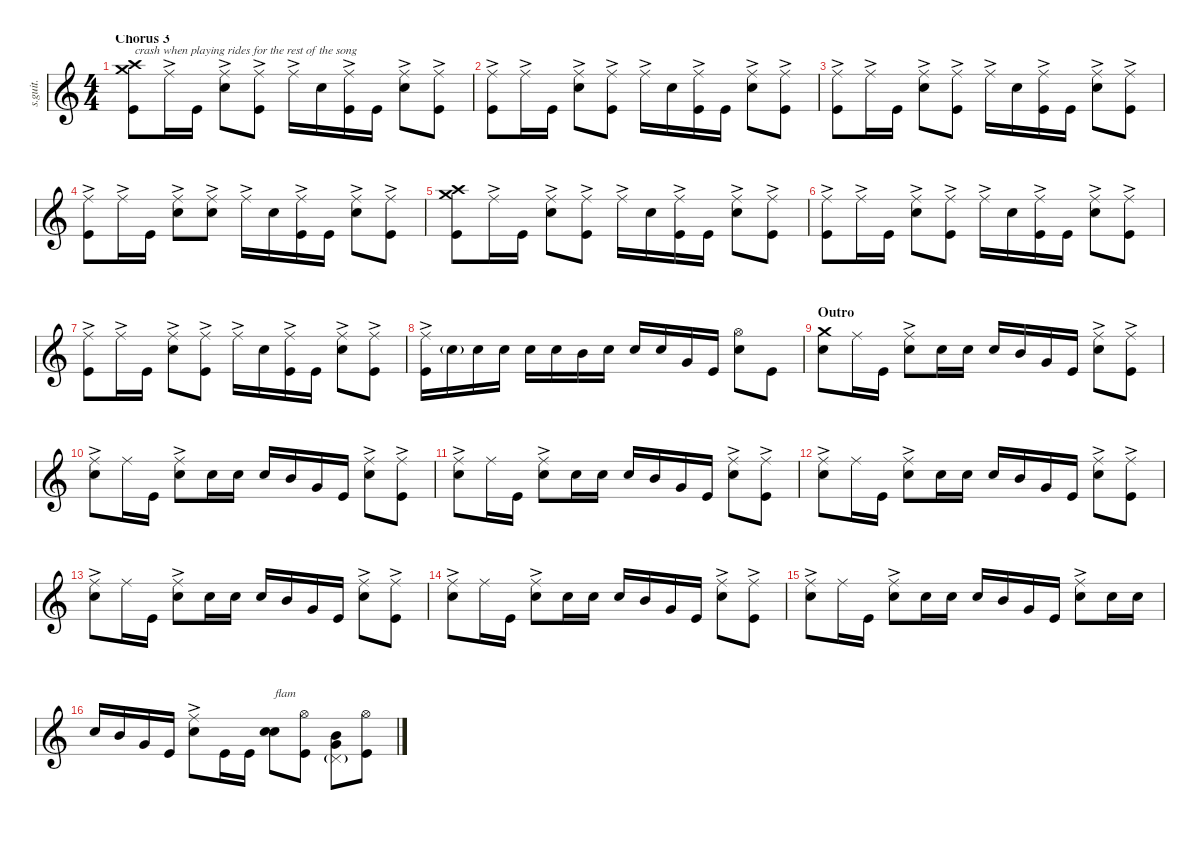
\defaultSystemsLayout 4
\hideDynamics
\bracketExtendMode nobrackets
\track ("Matt Helders" "s.guit.") {instrument percussion}
\staff {score}
\articulation defaults
\ts (4 4)
\section ("" "Chorus 3")
\tempo (97 hide)
\clef g2
\ks c
("Crash high (hit)" "Crash medium (hit)" "Kick (hit)").8{txt "crash when playing rides for the rest of the song" lyrics (0 "") lyrics (1 "") lyrics (2 "") lyrics (3 "") lyrics (4 "") dy f} "Ride (middle)"{ac}.16{lyrics (0 "") lyrics (1 "") lyrics (2 "") lyrics (3 "") lyrics (4 "") dy ff} "Kick (hit)".16{lyrics (0 "") lyrics (1 "") lyrics (2 "") lyrics (3 "") lyrics (4 "") dy f} ("Ride (middle)"{ac} "Snare (hit) 2").8{lyrics (0 "") lyrics (1 "") lyrics (2 "") lyrics (3 "") lyrics (4 "")} ("Ride (middle)"{ac} "Kick (hit)").8{lyrics (0 "") lyrics (1 "") lyrics (2 "") lyrics (3 "") lyrics (4 "")} "Ride (middle)"{ac}.16{lyrics (0 "") lyrics (1 "") lyrics (2 "") lyrics (3 "") lyrics (4 "") dy ff} "Snare (hit) 2".16{lyrics (0 "") lyrics (1 "") lyrics (2 "") lyrics (3 "") lyrics (4 "") dy f} ("Ride (middle)"{ac} "Kick (hit)").16{lyrics (0 "") lyrics (1 "") lyrics (2 "") lyrics (3 "") lyrics (4 "")} "Kick (hit)".16{lyrics (0 "") lyrics (1 "") lyrics (2 "") lyrics (3 "") lyrics (4 "")} ("Ride (middle)"{ac} "Snare (hit) 2").8{lyrics (0 "") lyrics (1 "") lyrics (2 "") lyrics (3 "") lyrics (4 "")} ("Ride (middle)"{ac} "Kick (hit)").8{lyrics (0 "") lyrics (1 "") lyrics (2 "") lyrics (3 "") lyrics (4 "")} |
("Ride (middle)"{ac} "Kick (hit)").8{lyrics (0 "") lyrics (1 "") lyrics (2 "") lyrics (3 "") lyrics (4 "")} "Ride (middle)"{ac}.16{lyrics (0 "") lyrics (1 "") lyrics (2 "") lyrics (3 "") lyrics (4 "") dy ff} "Kick (hit)".16{lyrics (0 "") lyrics (1 "") lyrics (2 "") lyrics (3 "") lyrics (4 "") dy f} ("Ride (middle)"{ac} "Snare (hit) 2").8{lyrics (0 "") lyrics (1 "") lyrics (2 "") lyrics (3 "") lyrics (4 "")} ("Ride (middle)"{ac} "Kick (hit)").8{lyrics (0 "") lyrics (1 "") lyrics (2 "") lyrics (3 "") lyrics (4 "")} "Ride (middle)"{ac}.16{lyrics (0 "") lyrics (1 "") lyrics (2 "") lyrics (3 "") lyrics (4 "") dy ff} "Snare (hit) 2".16{lyrics (0 "") lyrics (1 "") lyrics (2 "") lyrics (3 "") lyrics (4 "") dy f} ("Ride (middle)"{ac} "Kick (hit)").16{lyrics (0 "") lyrics (1 "") lyrics (2 "") lyrics (3 "") lyrics (4 "")} "Kick (hit)".16{lyrics (0 "") lyrics (1 "") lyrics (2 "") lyrics (3 "") lyrics (4 "")} ("Ride (middle)"{ac} "Snare (hit) 2").8{lyrics (0 "") lyrics (1 "") lyrics (2 "") lyrics (3 "") lyrics (4 "")} ("Ride (middle)"{ac} "Kick (hit)").8{lyrics (0 "") lyrics (1 "") lyrics (2 "") lyrics (3 "") lyrics (4 "")} |
("Ride (middle)"{ac} "Kick (hit)").8{lyrics (0 "") lyrics (1 "") lyrics (2 "") lyrics (3 "") lyrics (4 "")} "Ride (middle)"{ac}.16{lyrics (0 "") lyrics (1 "") lyrics (2 "") lyrics (3 "") lyrics (4 "") dy ff} "Kick (hit)".16{lyrics (0 "") lyrics (1 "") lyrics (2 "") lyrics (3 "") lyrics (4 "") dy f} ("Ride (middle)"{ac} "Snare (hit) 2").8{lyrics (0 "") lyrics (1 "") lyrics (2 "") lyrics (3 "") lyrics (4 "")} ("Ride (middle)"{ac} "Kick (hit)").8{lyrics (0 "") lyrics (1 "") lyrics (2 "") lyrics (3 "") lyrics (4 "")} "Ride (middle)"{ac}.16{lyrics (0 "") lyrics (1 "") lyrics (2 "") lyrics (3 "") lyrics (4 "") dy ff} "Snare (hit) 2".16{lyrics (0 "") lyrics (1 "") lyrics (2 "") lyrics (3 "") lyrics (4 "") dy f} ("Ride (middle)"{ac} "Kick (hit)").16{lyrics (0 "") lyrics (1 "") lyrics (2 "") lyrics (3 "") lyrics (4 "")} "Kick (hit)".16{lyrics (0 "") lyrics (1 "") lyrics (2 "") lyrics (3 "") lyrics (4 "")} ("Ride (middle)"{ac} "Snare (hit) 2").8{lyrics (0 "") lyrics (1 "") lyrics (2 "") lyrics (3 "") lyrics (4 "")} ("Ride (middle)"{ac} "Kick (hit)").8{lyrics (0 "") lyrics (1 "") lyrics (2 "") lyrics (3 "") lyrics (4 "")} |
("Ride (middle)"{ac} "Kick (hit)").8{lyrics (0 "") lyrics (1 "") lyrics (2 "") lyrics (3 "") lyrics (4 "")} "Ride (middle)"{ac}.16{lyrics (0 "") lyrics (1 "") lyrics (2 "") lyrics (3 "") lyrics (4 "") dy ff} "Kick (hit)".16{lyrics (0 "") lyrics (1 "") lyrics (2 "") lyrics (3 "") lyrics (4 "") dy f} ("Ride (middle)"{ac} "Snare (hit) 2").8{lyrics (0 "") lyrics (1 "") lyrics (2 "") lyrics (3 "") lyrics (4 "")} ("Ride (middle)"{ac} "Snare (hit) 2").8{lyrics (0 "") lyrics (1 "") lyrics (2 "") lyrics (3 "") lyrics (4 "")} "Ride (middle)"{ac}.16{lyrics (0 "") lyrics (1 "") lyrics (2 "") lyrics (3 "") lyrics (4 "") dy ff} "Snare (hit) 2".16{lyrics (0 "") lyrics (1 "") lyrics (2 "") lyrics (3 "") lyrics (4 "") dy f} ("Ride (middle)"{ac} "Kick (hit)").16{lyrics (0 "") lyrics (1 "") lyrics (2 "") lyrics (3 "") lyrics (4 "")} "Kick (hit)".16{lyrics (0 "") lyrics (1 "") lyrics (2 "") lyrics (3 "") lyrics (4 "")} ("Ride (middle)"{ac} "Snare (hit) 2").8{lyrics (0 "") lyrics (1 "") lyrics (2 "") lyrics (3 "") lyrics (4 "")} ("Ride (middle)"{ac} "Kick (hit)").8{lyrics (0 "") lyrics (1 "") lyrics (2 "") lyrics (3 "") lyrics (4 "")} |
("Crash high (hit)" "Crash medium (hit)" "Kick (hit)").8{lyrics (0 "") lyrics (1 "") lyrics (2 "") lyrics (3 "") lyrics (4 "")} "Ride (middle)"{ac}.16{lyrics (0 "") lyrics (1 "") lyrics (2 "") lyrics (3 "") lyrics (4 "") dy ff} "Kick (hit)".16{lyrics (0 "") lyrics (1 "") lyrics (2 "") lyrics (3 "") lyrics (4 "") dy f} ("Ride (middle)"{ac} "Snare (hit) 2").8{lyrics (0 "") lyrics (1 "") lyrics (2 "") lyrics (3 "") lyrics (4 "")} ("Ride (middle)"{ac} "Kick (hit)").8{lyrics (0 "") lyrics (1 "") lyrics (2 "") lyrics (3 "") lyrics (4 "")} "Ride (middle)"{ac}.16{lyrics (0 "") lyrics (1 "") lyrics (2 "") lyrics (3 "") lyrics (4 "") dy ff} "Snare (hit) 2".16{lyrics (0 "") lyrics (1 "") lyrics (2 "") lyrics (3 "") lyrics (4 "") dy f} ("Ride (middle)"{ac} "Kick (hit)").16{lyrics (0 "") lyrics (1 "") lyrics (2 "") lyrics (3 "") lyrics (4 "")} "Kick (hit)".16{lyrics (0 "") lyrics (1 "") lyrics (2 "") lyrics (3 "") lyrics (4 "")} ("Ride (middle)"{ac} "Snare (hit) 2").8{lyrics (0 "") lyrics (1 "") lyrics (2 "") lyrics (3 "") lyrics (4 "")} ("Ride (middle)"{ac} "Kick (hit)").8{lyrics (0 "") lyrics (1 "") lyrics (2 "") lyrics (3 "") lyrics (4 "")} |
("Ride (middle)"{ac} "Kick (hit)").8{lyrics (0 "") lyrics (1 "") lyrics (2 "") lyrics (3 "") lyrics (4 "")} "Ride (middle)"{ac}.16{lyrics (0 "") lyrics (1 "") lyrics (2 "") lyrics (3 "") lyrics (4 "") dy ff} "Kick (hit)".16{lyrics (0 "") lyrics (1 "") lyrics (2 "") lyrics (3 "") lyrics (4 "") dy f} ("Ride (middle)"{ac} "Snare (hit) 2").8{lyrics (0 "") lyrics (1 "") lyrics (2 "") lyrics (3 "") lyrics (4 "")} ("Ride (middle)"{ac} "Kick (hit)").8{lyrics (0 "") lyrics (1 "") lyrics (2 "") lyrics (3 "") lyrics (4 "")} "Ride (middle)"{ac}.16{lyrics (0 "") lyrics (1 "") lyrics (2 "") lyrics (3 "") lyrics (4 "") dy ff} "Snare (hit) 2".16{lyrics (0 "") lyrics (1 "") lyrics (2 "") lyrics (3 "") lyrics (4 "") dy f} ("Ride (middle)"{ac} "Kick (hit)").16{lyrics (0 "") lyrics (1 "") lyrics (2 "") lyrics (3 "") lyrics (4 "")} "Kick (hit)".16{lyrics (0 "") lyrics (1 "") lyrics (2 "") lyrics (3 "") lyrics (4 "")} ("Ride (middle)"{ac} "Snare (hit) 2").8{lyrics (0 "") lyrics (1 "") lyrics (2 "") lyrics (3 "") lyrics (4 "")} ("Ride (middle)"{ac} "Kick (hit)").8{lyrics (0 "") lyrics (1 "") lyrics (2 "") lyrics (3 "") lyrics (4 "")} |
("Ride (middle)"{ac} "Kick (hit)").8{lyrics (0 "") lyrics (1 "") lyrics (2 "") lyrics (3 "") lyrics (4 "")} "Ride (middle)"{ac}.16{lyrics (0 "") lyrics (1 "") lyrics (2 "") lyrics (3 "") lyrics (4 "") dy ff} "Kick (hit)".16{lyrics (0 "") lyrics (1 "") lyrics (2 "") lyrics (3 "") lyrics (4 "") dy f} ("Ride (middle)"{ac} "Snare (hit) 2").8{lyrics (0 "") lyrics (1 "") lyrics (2 "") lyrics (3 "") lyrics (4 "")} ("Ride (middle)"{ac} "Kick (hit)").8{lyrics (0 "") lyrics (1 "") lyrics (2 "") lyrics (3 "") lyrics (4 "")} "Ride (middle)"{ac}.16{lyrics (0 "") lyrics (1 "") lyrics (2 "") lyrics (3 "") lyrics (4 "") dy ff} "Snare (hit) 2".16{lyrics (0 "") lyrics (1 "") lyrics (2 "") lyrics (3 "") lyrics (4 "") dy f} ("Ride (middle)"{ac} "Kick (hit)").16{lyrics (0 "") lyrics (1 "") lyrics (2 "") lyrics (3 "") lyrics (4 "")} "Kick (hit)".16{lyrics (0 "") lyrics (1 "") lyrics (2 "") lyrics (3 "") lyrics (4 "")} ("Ride (middle)"{ac} "Snare (hit) 2").8{lyrics (0 "") lyrics (1 "") lyrics (2 "") lyrics (3 "") lyrics (4 "")} ("Ride (middle)"{ac} "Kick (hit)").8{lyrics (0 "") lyrics (1 "") lyrics (2 "") lyrics (3 "") lyrics (4 "")} |
("Ride (middle)"{ac} "Kick (hit)").16{lyrics (0 "") lyrics (1 "") lyrics (2 "") lyrics (3 "") lyrics (4 "")} "Snare (hit) 2"{g}.16{lyrics (0 "") lyrics (1 "") lyrics (2 "") lyrics (3 "") lyrics (4 "") dy mp} "Snare (hit) 2".16{lyrics (0 "") lyrics (1 "") lyrics (2 "") lyrics (3 "") lyrics (4 "") dy f} "Snare (hit) 2".16{lyrics (0 "") lyrics (1 "") lyrics (2 "") lyrics (3 "") lyrics (4 "")} "Snare (hit) 2".16{lyrics (0 "") lyrics (1 "") lyrics (2 "") lyrics (3 "") lyrics (4 "")} "Snare (hit) 2".16{lyrics (0 "") lyrics (1 "") lyrics (2 "") lyrics (3 "") lyrics (4 "")} "Mid Tom (hit)".16{lyrics (0 "") lyrics (1 "") lyrics (2 "") lyrics (3 "") lyrics (4 "")} "Snare (hit) 2".16{lyrics (0 "") lyrics (1 "") lyrics (2 "") lyrics (3 "") lyrics (4 "")} "Snare (hit) 2".16{lyrics (0 "") lyrics (1 "") lyrics (2 "") lyrics (3 "") lyrics (4 "")} "Snare (hit) 2".16{lyrics (0 "") lyrics (1 "") lyrics (2 "") lyrics (3 "") lyrics (4 "")} "Very Low Tom (hit)".16{lyrics (0 "") lyrics (1 "") lyrics (2 "") lyrics (3 "") lyrics (4 "")} "Kick (hit)".16{lyrics (0 "") lyrics (1 "") lyrics (2 "") lyrics (3 "") lyrics (4 "")} ("Hi-Hat (open)" "Snare (hit) 2").8{lyrics (0 "") lyrics (1 "") lyrics (2 "") lyrics (3 "") lyrics (4 "")} "Kick (hit)".8{lyrics (0 "") lyrics (1 "") lyrics (2 "") lyrics (3 "") lyrics (4 "")} |
\section ("" "Outro")
("Crash medium (hit)" "Snare (hit) 2").8{lyrics (0 "") lyrics (1 "") lyrics (2 "") lyrics (3 "") lyrics (4 "")} "Ride (middle)".16{lyrics (0 "") lyrics (1 "") lyrics (2 "") lyrics (3 "") lyrics (4 "")} "Kick (hit)".16{lyrics (0 "") lyrics (1 "") lyrics (2 "") lyrics (3 "") lyrics (4 "")} ("Ride (middle)"{ac} "Snare (hit) 2").8{lyrics (0 "") lyrics (1 "") lyrics (2 "") lyrics (3 "") lyrics (4 "")} "Snare (hit) 2".16{lyrics (0 "") lyrics (1 "") lyrics (2 "") lyrics (3 "") lyrics (4 "")} "Snare (hit) 2".16{lyrics (0 "") lyrics (1 "") lyrics (2 "") lyrics (3 "") lyrics (4 "")} "Snare (hit) 2".16{lyrics (0 "") lyrics (1 "") lyrics (2 "") lyrics (3 "") lyrics (4 "")} "Mid Tom (hit)".16{lyrics (0 "") lyrics (1 "") lyrics (2 "") lyrics (3 "") lyrics (4 "")} "Very Low Tom (hit)".16{lyrics (0 "") lyrics (1 "") lyrics (2 "") lyrics (3 "") lyrics (4 "")} "Kick (hit)".16{lyrics (0 "") lyrics (1 "") lyrics (2 "") lyrics (3 "") lyrics (4 "")} ("Ride (middle)"{ac} "Snare (hit) 2").8{lyrics (0 "") lyrics (1 "") lyrics (2 "") lyrics (3 "") lyrics (4 "")} ("Ride (middle)"{ac} "Kick (hit)").8{lyrics (0 "") lyrics (1 "") lyrics (2 "") lyrics (3 "") lyrics (4 "")} |
("Ride (middle)"{ac} "Snare (hit) 2").8{lyrics (0 "") lyrics (1 "") lyrics (2 "") lyrics (3 "") lyrics (4 "")} "Ride (middle)".16{lyrics (0 "") lyrics (1 "") lyrics (2 "") lyrics (3 "") lyrics (4 "")} "Kick (hit)".16{lyrics (0 "") lyrics (1 "") lyrics (2 "") lyrics (3 "") lyrics (4 "")} ("Ride (middle)"{ac} "Snare (hit) 2").8{lyrics (0 "") lyrics (1 "") lyrics (2 "") lyrics (3 "") lyrics (4 "")} "Snare (hit) 2".16{lyrics (0 "") lyrics (1 "") lyrics (2 "") lyrics (3 "") lyrics (4 "")} "Snare (hit) 2".16{lyrics (0 "") lyrics (1 "") lyrics (2 "") lyrics (3 "") lyrics (4 "")} "Snare (hit) 2".16{lyrics (0 "") lyrics (1 "") lyrics (2 "") lyrics (3 "") lyrics (4 "")} "Mid Tom (hit)".16{lyrics (0 "") lyrics (1 "") lyrics (2 "") lyrics (3 "") lyrics (4 "")} "Very Low Tom (hit)".16{lyrics (0 "") lyrics (1 "") lyrics (2 "") lyrics (3 "") lyrics (4 "")} "Kick (hit)".16{lyrics (0 "") lyrics (1 "") lyrics (2 "") lyrics (3 "") lyrics (4 "")} ("Ride (middle)"{ac} "Snare (hit) 2").8{lyrics (0 "") lyrics (1 "") lyrics (2 "") lyrics (3 "") lyrics (4 "")} ("Ride (middle)"{ac} "Kick (hit)").8{lyrics (0 "") lyrics (1 "") lyrics (2 "") lyrics (3 "") lyrics (4 "")} |
("Ride (middle)"{ac} "Snare (hit) 2").8{lyrics (0 "") lyrics (1 "") lyrics (2 "") lyrics (3 "") lyrics (4 "")} "Ride (middle)".16{lyrics (0 "") lyrics (1 "") lyrics (2 "") lyrics (3 "") lyrics (4 "")} "Kick (hit)".16{lyrics (0 "") lyrics (1 "") lyrics (2 "") lyrics (3 "") lyrics (4 "")} ("Ride (middle)"{ac} "Snare (hit) 2").8{lyrics (0 "") lyrics (1 "") lyrics (2 "") lyrics (3 "") lyrics (4 "")} "Snare (hit) 2".16{lyrics (0 "") lyrics (1 "") lyrics (2 "") lyrics (3 "") lyrics (4 "")} "Snare (hit) 2".16{lyrics (0 "") lyrics (1 "") lyrics (2 "") lyrics (3 "") lyrics (4 "")} "Snare (hit) 2".16{lyrics (0 "") lyrics (1 "") lyrics (2 "") lyrics (3 "") lyrics (4 "")} "Mid Tom (hit)".16{lyrics (0 "") lyrics (1 "") lyrics (2 "") lyrics (3 "") lyrics (4 "")} "Very Low Tom (hit)".16{lyrics (0 "") lyrics (1 "") lyrics (2 "") lyrics (3 "") lyrics (4 "")} "Kick (hit)".16{lyrics (0 "") lyrics (1 "") lyrics (2 "") lyrics (3 "") lyrics (4 "")} ("Ride (middle)"{ac} "Snare (hit) 2").8{lyrics (0 "") lyrics (1 "") lyrics (2 "") lyrics (3 "") lyrics (4 "")} ("Ride (middle)"{ac} "Kick (hit)").8{lyrics (0 "") lyrics (1 "") lyrics (2 "") lyrics (3 "") lyrics (4 "")} |
("Ride (middle)"{ac} "Snare (hit) 2").8{lyrics (0 "") lyrics (1 "") lyrics (2 "") lyrics (3 "") lyrics (4 "")} "Ride (middle)".16{lyrics (0 "") lyrics (1 "") lyrics (2 "") lyrics (3 "") lyrics (4 "")} "Kick (hit)".16{lyrics (0 "") lyrics (1 "") lyrics (2 "") lyrics (3 "") lyrics (4 "")} ("Ride (middle)"{ac} "Snare (hit) 2").8{lyrics (0 "") lyrics (1 "") lyrics (2 "") lyrics (3 "") lyrics (4 "")} "Snare (hit) 2".16{lyrics (0 "") lyrics (1 "") lyrics (2 "") lyrics (3 "") lyrics (4 "")} "Snare (hit) 2".16{lyrics (0 "") lyrics (1 "") lyrics (2 "") lyrics (3 "") lyrics (4 "")} "Snare (hit) 2".16{lyrics (0 "") lyrics (1 "") lyrics (2 "") lyrics (3 "") lyrics (4 "")} "Mid Tom (hit)".16{lyrics (0 "") lyrics (1 "") lyrics (2 "") lyrics (3 "") lyrics (4 "")} "Very Low Tom (hit)".16{lyrics (0 "") lyrics (1 "") lyrics (2 "") lyrics (3 "") lyrics (4 "")} "Kick (hit)".16{lyrics (0 "") lyrics (1 "") lyrics (2 "") lyrics (3 "") lyrics (4 "")} ("Ride (middle)"{ac} "Snare (hit) 2").8{lyrics (0 "") lyrics (1 "") lyrics (2 "") lyrics (3 "") lyrics (4 "")} ("Ride (middle)"{ac} "Kick (hit)").8{lyrics (0 "") lyrics (1 "") lyrics (2 "") lyrics (3 "") lyrics (4 "")} |
("Ride (middle)"{ac} "Snare (hit) 2").8{lyrics (0 "") lyrics (1 "") lyrics (2 "") lyrics (3 "") lyrics (4 "")} "Ride (middle)".16{lyrics (0 "") lyrics (1 "") lyrics (2 "") lyrics (3 "") lyrics (4 "")} "Kick (hit)".16{lyrics (0 "") lyrics (1 "") lyrics (2 "") lyrics (3 "") lyrics (4 "")} ("Ride (middle)"{ac} "Snare (hit) 2").8{lyrics (0 "") lyrics (1 "") lyrics (2 "") lyrics (3 "") lyrics (4 "")} "Snare (hit) 2".16{lyrics (0 "") lyrics (1 "") lyrics (2 "") lyrics (3 "") lyrics (4 "")} "Snare (hit) 2".16{lyrics (0 "") lyrics (1 "") lyrics (2 "") lyrics (3 "") lyrics (4 "")} "Snare (hit) 2".16{lyrics (0 "") lyrics (1 "") lyrics (2 "") lyrics (3 "") lyrics (4 "")} "Mid Tom (hit)".16{lyrics (0 "") lyrics (1 "") lyrics (2 "") lyrics (3 "") lyrics (4 "")} "Very Low Tom (hit)".16{lyrics (0 "") lyrics (1 "") lyrics (2 "") lyrics (3 "") lyrics (4 "")} "Kick (hit)".16{lyrics (0 "") lyrics (1 "") lyrics (2 "") lyrics (3 "") lyrics (4 "")} ("Ride (middle)"{ac} "Snare (hit) 2").8{lyrics (0 "") lyrics (1 "") lyrics (2 "") lyrics (3 "") lyrics (4 "")} ("Ride (middle)"{ac} "Kick (hit)").8{lyrics (0 "") lyrics (1 "") lyrics (2 "") lyrics (3 "") lyrics (4 "")} |
("Ride (middle)"{ac} "Snare (hit) 2").8{lyrics (0 "") lyrics (1 "") lyrics (2 "") lyrics (3 "") lyrics (4 "")} "Ride (middle)".16{lyrics (0 "") lyrics (1 "") lyrics (2 "") lyrics (3 "") lyrics (4 "")} "Kick (hit)".16{lyrics (0 "") lyrics (1 "") lyrics (2 "") lyrics (3 "") lyrics (4 "")} ("Ride (middle)"{ac} "Snare (hit) 2").8{lyrics (0 "") lyrics (1 "") lyrics (2 "") lyrics (3 "") lyrics (4 "")} "Snare (hit) 2".16{lyrics (0 "") lyrics (1 "") lyrics (2 "") lyrics (3 "") lyrics (4 "")} "Snare (hit) 2".16{lyrics (0 "") lyrics (1 "") lyrics (2 "") lyrics (3 "") lyrics (4 "")} "Snare (hit) 2".16{lyrics (0 "") lyrics (1 "") lyrics (2 "") lyrics (3 "") lyrics (4 "")} "Mid Tom (hit)".16{lyrics (0 "") lyrics (1 "") lyrics (2 "") lyrics (3 "") lyrics (4 "")} "Very Low Tom (hit)".16{lyrics (0 "") lyrics (1 "") lyrics (2 "") lyrics (3 "") lyrics (4 "")} "Kick (hit)".16{lyrics (0 "") lyrics (1 "") lyrics (2 "") lyrics (3 "") lyrics (4 "")} ("Ride (middle)"{ac} "Snare (hit) 2").8{lyrics (0 "") lyrics (1 "") lyrics (2 "") lyrics (3 "") lyrics (4 "")} ("Ride (middle)"{ac} "Kick (hit)").8{lyrics (0 "") lyrics (1 "") lyrics (2 "") lyrics (3 "") lyrics (4 "")} |
("Ride (middle)"{ac} "Snare (hit) 2").8{lyrics (0 "") lyrics (1 "") lyrics (2 "") lyrics (3 "") lyrics (4 "")} "Ride (middle)".16{lyrics (0 "") lyrics (1 "") lyrics (2 "") lyrics (3 "") lyrics (4 "")} "Kick (hit)".16{lyrics (0 "") lyrics (1 "") lyrics (2 "") lyrics (3 "") lyrics (4 "")} ("Ride (middle)"{ac} "Snare (hit) 2").8{lyrics (0 "") lyrics (1 "") lyrics (2 "") lyrics (3 "") lyrics (4 "")} "Snare (hit) 2".16{lyrics (0 "") lyrics (1 "") lyrics (2 "") lyrics (3 "") lyrics (4 "")} "Snare (hit) 2".16{lyrics (0 "") lyrics (1 "") lyrics (2 "") lyrics (3 "") lyrics (4 "")} "Snare (hit) 2".16{lyrics (0 "") lyrics (1 "") lyrics (2 "") lyrics (3 "") lyrics (4 "")} "Mid Tom (hit)".16{lyrics (0 "") lyrics (1 "") lyrics (2 "") lyrics (3 "") lyrics (4 "")} "Very Low Tom (hit)".16{lyrics (0 "") lyrics (1 "") lyrics (2 "") lyrics (3 "") lyrics (4 "")} "Kick (hit)".16{lyrics (0 "") lyrics (1 "") lyrics (2 "") lyrics (3 "") lyrics (4 "")} ("Ride (middle)"{ac} "Snare (hit) 2").8{lyrics (0 "") lyrics (1 "") lyrics (2 "") lyrics (3 "") lyrics (4 "")} "Snare (hit) 2".16{lyrics (0 "") lyrics (1 "") lyrics (2 "") lyrics (3 "") lyrics (4 "")} "Snare (hit) 2".16{lyrics (0 "") lyrics (1 "") lyrics (2 "") lyrics (3 "") lyrics (4 "")} |
"Snare (hit) 2".16{lyrics (0 "") lyrics (1 "") lyrics (2 "") lyrics (3 "") lyrics (4 "")} "Mid Tom (hit)".16{lyrics (0 "") lyrics (1 "") lyrics (2 "") lyrics (3 "") lyrics (4 "")} "Very Low Tom (hit)".16{lyrics (0 "") lyrics (1 "") lyrics (2 "") lyrics (3 "") lyrics (4 "")} "Kick (hit)".16{lyrics (0 "") lyrics (1 "") lyrics (2 "") lyrics (3 "") lyrics (4 "")} ("Ride (middle)"{ac} "Snare (hit) 2").8{lyrics (0 "") lyrics (1 "") lyrics (2 "") lyrics (3 "") lyrics (4 "")} "Kick (hit)".16{lyrics (0 "") lyrics (1 "") lyrics (2 "") lyrics (3 "") lyrics (4 "")} "Kick (hit)".16{lyrics (0 "") lyrics (1 "") lyrics (2 "") lyrics (3 "") lyrics (4 "")} ("Snare (hit) 2" "Snare (hit) 2").8{bd 30 txt "flam" lyrics (0 "") lyrics (1 "") lyrics (2 "") lyrics (3 "") lyrics (4 "")} ("Hi-Hat (open)" "Kick (hit)").8{lyrics (0 "") lyrics (1 "") lyrics (2 "") lyrics (3 "") lyrics (4 "")} ("Mid Tom (hit)" "Very Low Tom (hit)" "Pedal Hi-Hat (hit)"{g}).8{bd 30 lyrics (0 "") lyrics (1 "") lyrics (2 "") lyrics (3 "") lyrics (4 "")} ("Hi-Hat (open)" "Kick (hit)").8{lyrics (0 "") lyrics (1 "") lyrics (2 "") lyrics (3 "") lyrics (4 "")}
